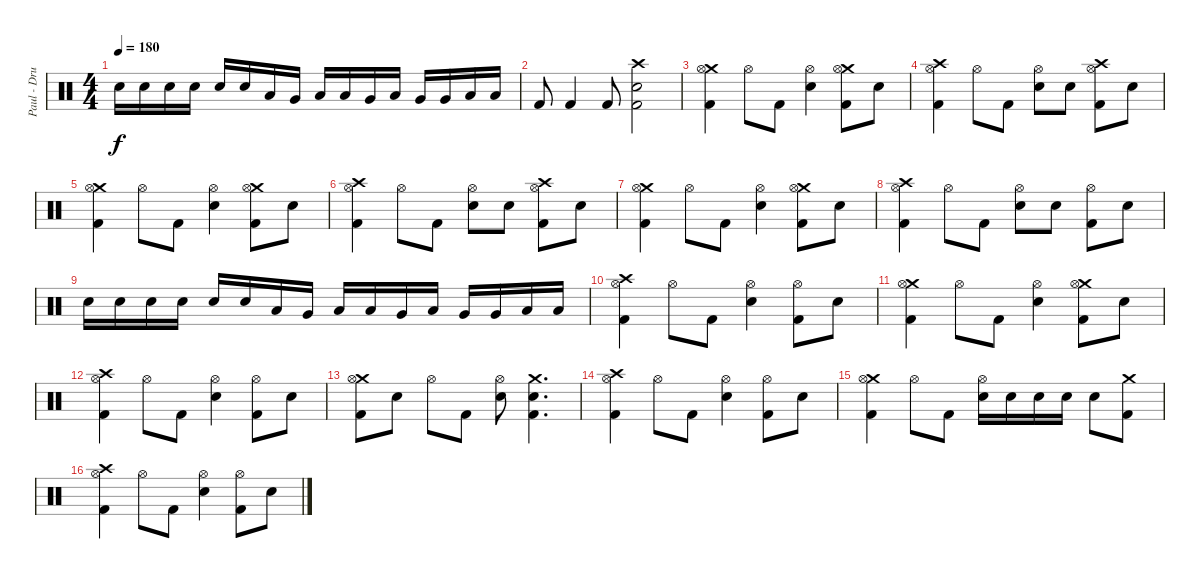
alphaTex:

\track ("Paul - Drums" "Paul - Dru") {instrument percussion}
\staff {score}
\articulation defaults
\ts (4 4)
\tempo 180
\clef neutral
\ks c "Electric Snare (hit)".16{dy f} "Electric Snare (hit)".16 "Electric Snare (hit)".16 "Electric Snare (hit)".16 "Electric Snare (hit)".16 "Electric Snare (hit)".16 "Low Tom (hit)".16 "Very Low Tom (hit)".16 "Low Tom (hit)".16 "Low Tom (hit)".16 "Very Low Tom (hit)".16 "Low Floor Tom (hit)".16 "Very Low Tom (hit)".16 "Very Low Tom (hit)".16 "Low Floor Tom (hit)".16 "Low Floor Tom (hit)".16
|
"Kick (hit) 2".8 "Kick (hit) 2".4 "Kick (hit) 2".8 ("Crash high (hit)" "Electric Snare (hit)" "Kick (hit) 2").2 |
("Crash medium (hit)" "Hi-Hat (open)" "Kick (hit) 2").4 "Hi-Hat (open)".8 "Kick (hit) 2".8 ("Hi-Hat (open)" "Electric Snare (hit)").4 ("Crash medium (hit)" "Hi-Hat (open)" "Kick (hit) 2").8 "Electric Snare (hit)".8 |
("Crash high (hit)" "Hi-Hat (open)" "Kick (hit) 2").4 "Hi-Hat (open)".8 "Kick (hit) 2".8 ("Hi-Hat (open)" "Electric Snare (hit)").8 "Electric Snare (hit)".8 ("Crash high (hit)" "Hi-Hat (open)" "Kick (hit) 2").8 "Electric Snare (hit)".8 |
("Crash medium (hit)" "Hi-Hat (open)" "Kick (hit) 2").4 "Hi-Hat (open)".8 "Kick (hit) 2".8 ("Hi-Hat (open)" "Electric Snare (hit)").4 ("Crash medium (hit)" "Hi-Hat (open)" "Kick (hit) 2").8 "Electric Snare (hit)".8 |
("Crash high (hit)" "Hi-Hat (open)" "Kick (hit) 2").4 "Hi-Hat (open)".8 "Kick (hit) 2".8 ("Hi-Hat (open)" "Electric Snare (hit)").8 "Electric Snare (hit)".8 ("Crash high (hit)" "Hi-Hat (open)" "Kick (hit) 2").8 "Electric Snare (hit)".8 |
("Crash medium (hit)" "Hi-Hat (open)" "Kick (hit) 2").4 "Hi-Hat (open)".8 "Kick (hit) 2".8 ("Hi-Hat (open)" "Electric Snare (hit)").4 ("Crash medium (hit)" "Hi-Hat (open)" "Kick (hit) 2").8 "Electric Snare (hit)".8 |
("Crash high (hit)" "Hi-Hat (open)" "Kick (hit) 2").4 "Hi-Hat (open)".8 "Kick (hit) 2".8 ("Hi-Hat (open)" "Electric Snare (hit)").8 "Electric Snare (hit)".8 ("Hi-Hat (open)" "Kick (hit) 2").8 "Electric Snare (hit)".8 |
"Electric Snare (hit)".16 "Electric Snare (hit)".16 "Electric Snare (hit)".16 "Electric Snare (hit)".16 "Electric Snare (hit)".16 "Electric Snare (hit)".16 "Low Tom (hit)".16 "Very Low Tom (hit)".16 "Low Tom (hit)".16 "Low Tom (hit)".16 "Very Low Tom (hit)".16 "Low Floor Tom (hit)".16 "Very Low Tom (hit)".16 "Very Low Tom (hit)".16 "Low Floor Tom (hit)".16 "Low Floor Tom (hit)".16 |
("Crash high (hit)" "Hi-Hat (open)" "Kick (hit) 2").4 "Hi-Hat (open)".8 "Kick (hit) 2".8 ("Hi-Hat (open)" "Electric Snare (hit)").4 ("Hi-Hat (open)" "Kick (hit) 2").8 "Electric Snare (hit)".8 |
("Crash medium (hit)" "Hi-Hat (open)" "Kick (hit) 2").4 "Hi-Hat (open)".8 "Kick (hit) 2".8 ("Hi-Hat (open)" "Electric Snare (hit)").4 ("Crash medium (hit)" "Hi-Hat (open)" "Kick (hit) 2").8 "Electric Snare (hit)".8 |
("Crash high (hit)" "Hi-Hat (open)" "Kick (hit) 2").4 "Hi-Hat (open)".8 "Kick (hit) 2".8 ("Hi-Hat (open)" "Electric Snare (hit)").4 ("Hi-Hat (open)" "Kick (hit) 2").8 "Electric Snare (hit)".8 |
("Crash medium (hit)" "Hi-Hat (open)" "Kick (hit) 2").8 "Electric Snare (hit)".8 "Hi-Hat (open)".8 "Kick (hit) 2".8 ("Hi-Hat (open)" "Electric Snare (hit)").8 ("Crash medium (hit)" "Electric Snare (hit)" "Kick (hit) 2").4{d} |
("Crash high (hit)" "Hi-Hat (open)" "Kick (hit) 2").4 "Hi-Hat (open)".8 "Kick (hit) 2".8 ("Hi-Hat (open)" "Electric Snare (hit)").4 ("Hi-Hat (open)" "Kick (hit) 2").8 "Electric Snare (hit)".8 |
("Crash medium (hit)" "Hi-Hat (open)" "Kick (hit) 2").4 "Hi-Hat (open)".8 "Kick (hit) 2".8 ("Hi-Hat (open)" "Electric Snare (hit)").16 "Electric Snare (hit)".16 "Electric Snare (hit)".16 "Electric Snare (hit)".16 "Electric Snare (hit)".8 ("Crash medium (hit)" "Kick (hit) 2").8 |
("Crash high (hit)" "Hi-Hat (open)" "Kick (hit) 2").4 "Hi-Hat (open)".8 "Kick (hit) 2".8 ("Hi-Hat (open)" "Electric Snare (hit)").4 ("Hi-Hat (open)" "Kick (hit) 2").8 "Electric Snare (hit)".8
